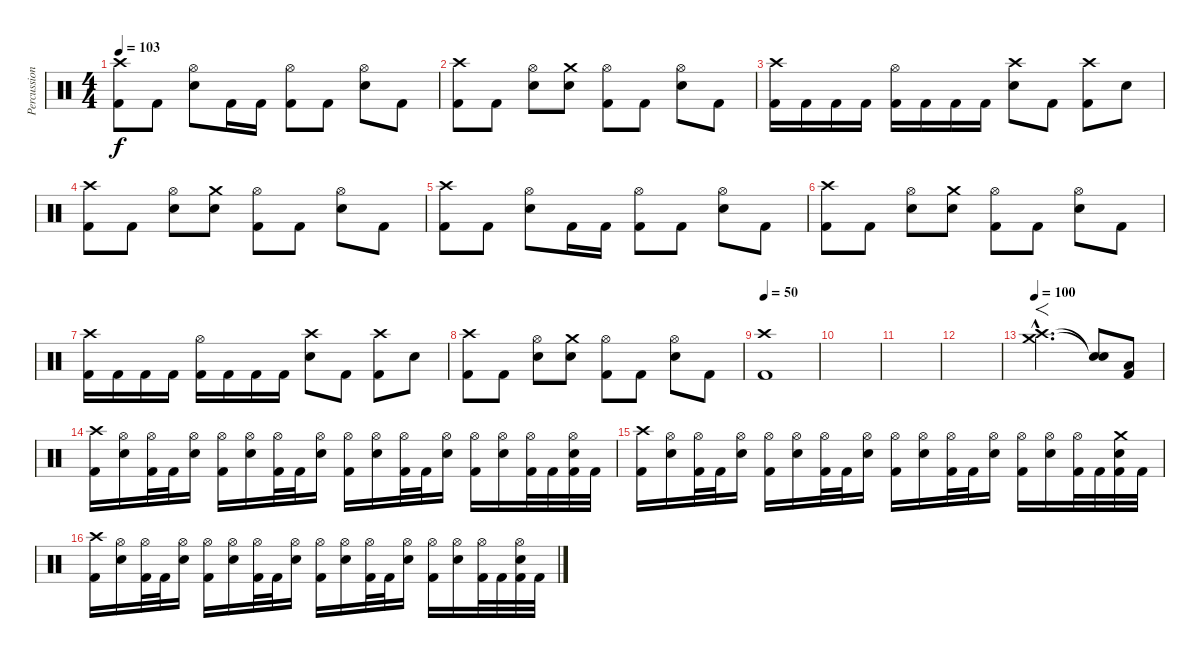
\track ("Percussion" "Percussion") {instrument percussion}
\staff {score}
\articulation defaults
\ts (4 4)
\tempo 103
\clef neutral
\ks c
("Crash high (hit)" "Kick (hit) 2").8{dy f} "Kick (hit) 2".8 ("Hi-Hat (open)" "Electric Snare (hit)").8 "Kick (hit) 2".16 "Kick (hit) 2".16 ("Hi-Hat (open)" "Kick (hit) 2").8 "Kick (hit) 2".8 ("Hi-Hat (open)" "Electric Snare (hit)").8 "Kick (hit) 2".8 |
("Crash high (hit)" "Kick (hit) 2").8 "Kick (hit) 2".8 ("Hi-Hat (open)" "Electric Snare (hit)").8 ("Crash medium (hit)" "Electric Snare (hit)").8 ("Hi-Hat (open)" "Kick (hit) 2").8 "Kick (hit) 2".8 ("Hi-Hat (open)" "Electric Snare (hit)").8 "Kick (hit) 2".8 |
("Crash high (hit)" "Kick (hit) 2").16 "Kick (hit) 2".16 "Kick (hit) 2".16 "Kick (hit) 2".16 ("Hi-Hat (open)" "Kick (hit) 2").16 "Kick (hit) 2".16 "Kick (hit) 2".16 "Kick (hit) 2".16 ("Crash high (hit)" "Electric Snare (hit)").8 "Kick (hit) 2".8 ("Crash high (hit)" "Kick (hit) 2").8 "Electric Snare (hit)".8 |
("Crash high (hit)" "Kick (hit) 2").8 "Kick (hit) 2".8 ("Hi-Hat (open)" "Electric Snare (hit)").8 ("Crash medium (hit)" "Electric Snare (hit)").8 ("Hi-Hat (open)" "Kick (hit) 2").8 "Kick (hit) 2".8 ("Hi-Hat (open)" "Electric Snare (hit)").8 "Kick (hit) 2".8 |
("Crash high (hit)" "Kick (hit) 2").8 "Kick (hit) 2".8 ("Hi-Hat (open)" "Electric Snare (hit)").8 "Kick (hit) 2".16 "Kick (hit) 2".16 ("Hi-Hat (open)" "Kick (hit) 2").8 "Kick (hit) 2".8 ("Hi-Hat (open)" "Electric Snare (hit)").8 "Kick (hit) 2".8 |
("Crash high (hit)" "Kick (hit) 2").8 "Kick (hit) 2".8 ("Hi-Hat (open)" "Electric Snare (hit)").8 ("Crash medium (hit)" "Electric Snare (hit)").8 ("Hi-Hat (open)" "Kick (hit) 2").8 "Kick (hit) 2".8 ("Hi-Hat (open)" "Electric Snare (hit)").8 "Kick (hit) 2".8 |
("Crash high (hit)" "Kick (hit) 2").16 "Kick (hit) 2".16 "Kick (hit) 2".16 "Kick (hit) 2".16 ("Hi-Hat (open)" "Kick (hit) 2").16 "Kick (hit) 2".16 "Kick (hit) 2".16 "Kick (hit) 2".16 ("Crash high (hit)" "Electric Snare (hit)").8 "Kick (hit) 2".8 ("Crash high (hit)" "Kick (hit) 2").8 "Electric Snare (hit)".8 |
("Crash high (hit)" "Kick (hit) 2").8 "Kick (hit) 2".8 ("Hi-Hat (open)" "Electric Snare (hit)").8 ("Crash medium (hit)" "Electric Snare (hit)").8 ("Hi-Hat (open)" "Kick (hit) 2").8 "Kick (hit) 2".8 ("Hi-Hat (open)" "Electric Snare (hit)").8 "Kick (hit) 2".8 |
\tempo 50
("Crash high (hit)" "Kick (hit) 2").1 |
|
|
|
\tempo 100
("Crash medium (hit)"{hac} "Crash high (hit)"{hac}).2{f d} ("Snare (hit)"{t} "Snare (hit)"{t}).8 ("Low Tom (hit)" "Kick (hit) 2").8 |
("Crash high (hit)" "Kick (hit) 2").16 ("Hi-Hat (open)" "Electric Snare (hit)").16 ("Hi-Hat (open)" "Kick (hit) 2").32 "Kick (hit) 2".32 ("Hi-Hat (open)" "Electric Snare (hit)").16 ("Hi-Hat (open)" "Kick (hit) 2").16 ("Hi-Hat (open)" "Electric Snare (hit)").16 ("Hi-Hat (open)" "Kick (hit) 2").32 "Kick (hit) 2".32 ("Hi-Hat (open)" "Electric Snare (hit)").16 ("Hi-Hat (open)" "Kick (hit) 2").16 ("Hi-Hat (open)" "Electric Snare (hit)").16 ("Hi-Hat (open)" "Kick (hit) 2").32 "Kick (hit) 2".32 ("Hi-Hat (open)" "Electric Snare (hit)").16 ("Hi-Hat (open)" "Kick (hit) 2").16 ("Hi-Hat (open)" "Electric Snare (hit)").16 ("Hi-Hat (open)" "Kick (hit) 2").32 "Kick (hit) 2".32 ("Hi-Hat (open)" "Electric Snare (hit)" "Kick (hit) 2").32 "Kick (hit) 2".32 |
("Crash high (hit)" "Kick (hit) 2").16 ("Hi-Hat (open)" "Electric Snare (hit)").16 ("Hi-Hat (open)" "Kick (hit) 2").32 "Kick (hit) 2".32 ("Hi-Hat (open)" "Electric Snare (hit)").16 ("Hi-Hat (open)" "Kick (hit) 2").16 ("Hi-Hat (open)" "Electric Snare (hit)").16 ("Hi-Hat (open)" "Kick (hit) 2").32 "Kick (hit) 2".32 ("Hi-Hat (open)" "Electric Snare (hit)").16 ("Hi-Hat (open)" "Kick (hit) 2").16 ("Hi-Hat (open)" "Electric Snare (hit)").16 ("Hi-Hat (open)" "Kick (hit) 2").32 "Kick (hit) 2".32 ("Hi-Hat (open)" "Electric Snare (hit)").16 ("Hi-Hat (open)" "Kick (hit) 2").16 ("Hi-Hat (open)" "Electric Snare (hit)").16 ("Hi-Hat (open)" "Kick (hit) 2").32 "Kick (hit) 2".32 ("Crash medium (hit)" "Electric Snare (hit)" "Kick (hit) 2").32 "Kick (hit) 2".32 |
("Crash high (hit)" "Kick (hit) 2").16 ("Hi-Hat (open)" "Electric Snare (hit)").16 ("Hi-Hat (open)" "Kick (hit) 2").32 "Kick (hit) 2".32 ("Hi-Hat (open)" "Electric Snare (hit)").16 ("Hi-Hat (open)" "Kick (hit) 2").16 ("Hi-Hat (open)" "Electric Snare (hit)").16 ("Hi-Hat (open)" "Kick (hit) 2").32 "Kick (hit) 2".32 ("Hi-Hat (open)" "Electric Snare (hit)").16 ("Hi-Hat (open)" "Kick (hit) 2").16 ("Hi-Hat (open)" "Electric Snare (hit)").16 ("Hi-Hat (open)" "Kick (hit) 2").32 "Kick (hit) 2".32 ("Hi-Hat (open)" "Electric Snare (hit)").16 ("Hi-Hat (open)" "Kick (hit) 2").16 ("Hi-Hat (open)" "Electric Snare (hit)").16 ("Hi-Hat (open)" "Kick (hit) 2").32 "Kick (hit) 2".32 ("Hi-Hat (open)" "Electric Snare (hit)" "Kick (hit) 2").32 "Kick (hit) 2".32
